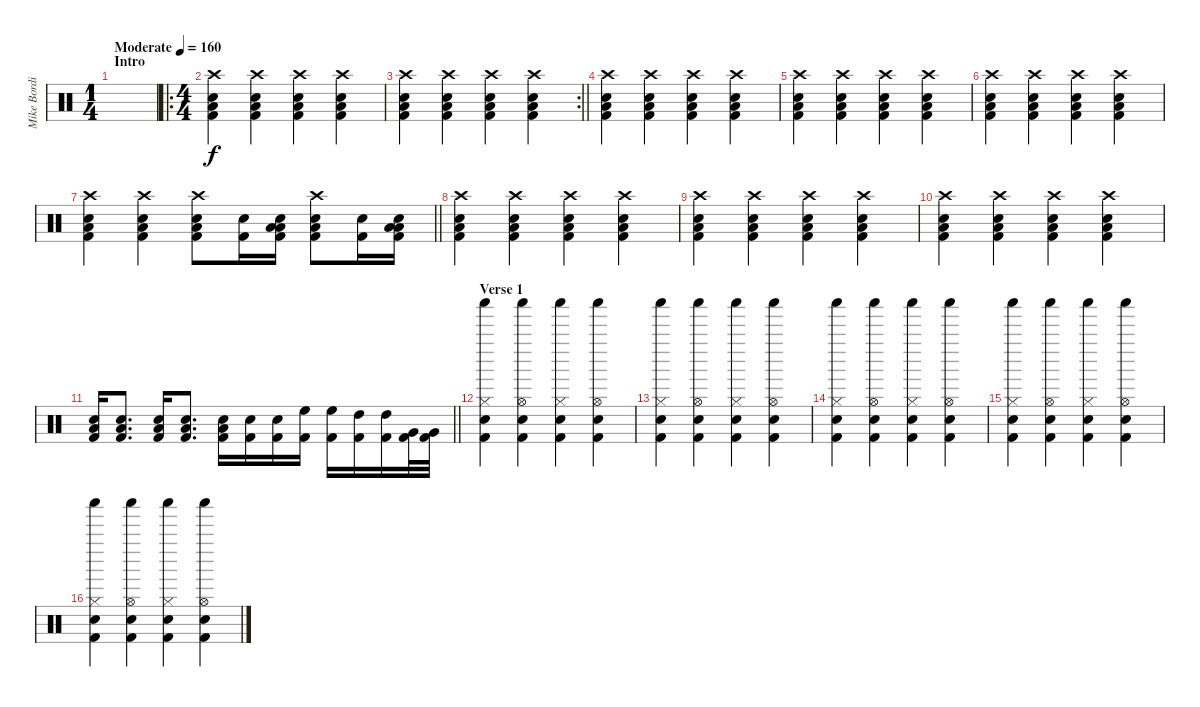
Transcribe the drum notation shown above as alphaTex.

\track ("Mike Bordin - Percussion" "Mike Bordi") {instrument percussion}
\staff {score}
\articulation defaults
\ts (1 4)
\section ("" "Intro")
\tempo (160 "Moderate")
\clef neutral
\ks c
|
\ro
\ts (4 4)
("Crash high (hit)" "Snare (hit) 2" "Low Floor Tom (hit)" "Kick (hit) 2").4 ("Crash high (hit)" "Snare (hit) 2" "Low Floor Tom (hit)" "Kick (hit) 2").4 ("Crash high (hit)" "Snare (hit) 2" "Low Floor Tom (hit)" "Kick (hit) 2").4 ("Crash high (hit)" "Snare (hit) 2" "Low Floor Tom (hit)" "Kick (hit) 2").4 |
\rc 2
\barLineRight lightlight
("Crash high (hit)" "Snare (hit) 2" "Low Floor Tom (hit)" "Kick (hit) 2").4 ("Crash high (hit)" "Snare (hit) 2" "Low Floor Tom (hit)" "Kick (hit) 2").4 ("Crash high (hit)" "Snare (hit) 2" "Low Floor Tom (hit)" "Kick (hit) 2").4 ("Crash high (hit)" "Snare (hit) 2" "Low Floor Tom (hit)" "Kick (hit) 2").4 |
\section ("" "")
("Crash high (hit)" "Snare (hit) 2" "Low Floor Tom (hit)" "Kick (hit) 2").4 ("Crash high (hit)" "Snare (hit) 2" "Low Floor Tom (hit)" "Kick (hit) 2").4 ("Crash high (hit)" "Snare (hit) 2" "Low Floor Tom (hit)" "Kick (hit) 2").4 ("Crash high (hit)" "Snare (hit) 2" "Low Floor Tom (hit)" "Kick (hit) 2").4 |
("Crash high (hit)" "Snare (hit) 2" "Low Floor Tom (hit)" "Kick (hit) 2").4 ("Crash high (hit)" "Snare (hit) 2" "Low Floor Tom (hit)" "Kick (hit) 2").4 ("Crash high (hit)" "Snare (hit) 2" "Low Floor Tom (hit)" "Kick (hit) 2").4 ("Crash high (hit)" "Snare (hit) 2" "Low Floor Tom (hit)" "Kick (hit) 2").4 |
("Crash high (hit)" "Snare (hit) 2" "Low Floor Tom (hit)" "Kick (hit) 2").4 ("Crash high (hit)" "Snare (hit) 2" "Low Floor Tom (hit)" "Kick (hit) 2").4 ("Crash high (hit)" "Snare (hit) 2" "Low Floor Tom (hit)" "Kick (hit) 2").4 ("Crash high (hit)" "Snare (hit) 2" "Low Floor Tom (hit)" "Kick (hit) 2").4 |
\barLineRight lightlight
("Crash high (hit)" "Snare (hit) 2" "Low Floor Tom (hit)" "Kick (hit) 2").4 ("Crash high (hit)" "Snare (hit) 2" "Low Floor Tom (hit)" "Kick (hit) 2").4 ("Crash high (hit)" "Snare (hit) 2" "Low Floor Tom (hit)" "Kick (hit) 2").8 ("Snare (hit) 2" "Kick (hit) 2").16 ("Low Tom (hit)" "Snare (hit) 2" "Low Floor Tom (hit)" "Kick (hit) 2").16 ("Crash high (hit)" "Snare (hit) 2" "Low Floor Tom (hit)" "Kick (hit) 2").8 ("Snare (hit) 2" "Kick (hit) 2").16 ("Low Tom (hit)" "Snare (hit) 2" "Low Floor Tom (hit)" "Kick (hit) 2").16 |
\section ("" "")
("Crash high (hit)" "Snare (hit) 2" "Low Floor Tom (hit)" "Kick (hit) 2").4 ("Crash high (hit)" "Snare (hit) 2" "Low Floor Tom (hit)" "Kick (hit) 2").4 ("Crash high (hit)" "Snare (hit) 2" "Low Floor Tom (hit)" "Kick (hit) 2").4 ("Crash high (hit)" "Snare (hit) 2" "Low Floor Tom (hit)" "Kick (hit) 2").4 |
("Crash high (hit)" "Snare (hit) 2" "Low Floor Tom (hit)" "Kick (hit) 2").4 ("Crash high (hit)" "Snare (hit) 2" "Low Floor Tom (hit)" "Kick (hit) 2").4 ("Crash high (hit)" "Snare (hit) 2" "Low Floor Tom (hit)" "Kick (hit) 2").4 ("Crash high (hit)" "Snare (hit) 2" "Low Floor Tom (hit)" "Kick (hit) 2").4 |
("Crash high (hit)" "Snare (hit) 2" "Low Floor Tom (hit)" "Kick (hit) 2").4 ("Crash high (hit)" "Snare (hit) 2" "Low Floor Tom (hit)" "Kick (hit) 2").4 ("Crash high (hit)" "Snare (hit) 2" "Low Floor Tom (hit)" "Kick (hit) 2").4 ("Crash high (hit)" "Snare (hit) 2" "Low Floor Tom (hit)" "Kick (hit) 2").4 |
\barLineRight lightlight
("Snare (hit) 2" "Low Floor Tom (hit)" "Kick (hit) 2").16 ("Snare (hit) 2" "Low Floor Tom (hit)" "Kick (hit) 2").8{d} ("Snare (hit) 2" "Low Floor Tom (hit)" "Kick (hit) 2").16 ("Snare (hit) 2" "Low Floor Tom (hit)" "Kick (hit) 2").8{d} ("Snare (hit) 2" "Low Floor Tom (hit)" "Kick (hit) 2").16 ("Snare (hit) 2" "Kick (hit) 2").16 ("Snare (hit) 2" "Kick (hit) 2").16 ("High Floor Tom (hit)" "Kick (hit) 2").16 ("High Floor Tom (hit)" "Kick (hit) 2").16 ("High Tom (hit)" "Kick (hit) 2").16 ("High Tom (hit)" "Kick (hit) 2").16 ("Very Low Tom (hit)" "Kick (hit) 2").32 ("Very Low Tom (hit)" "Kick (hit) 2").32 |
\section ("" "Verse 1")
("Shaker (hit)" "Snare (hit) 2" "Hi-Hat (closed)" "Kick (hit) 2").4 ("Shaker (hit)" "Snare (hit) 2" "Hi-Hat (open)" "Kick (hit) 2").4 ("Shaker (hit)" "Snare (hit) 2" "Hi-Hat (closed)" "Kick (hit) 2").4 ("Shaker (hit)" "Snare (hit) 2" "Hi-Hat (open)" "Kick (hit) 2").4 |
("Shaker (hit)" "Snare (hit) 2" "Hi-Hat (closed)" "Kick (hit) 2").4 ("Shaker (hit)" "Snare (hit) 2" "Hi-Hat (open)" "Kick (hit) 2").4 ("Shaker (hit)" "Snare (hit) 2" "Hi-Hat (closed)" "Kick (hit) 2").4 ("Shaker (hit)" "Snare (hit) 2" "Hi-Hat (open)" "Kick (hit) 2").4 |
("Shaker (hit)" "Snare (hit) 2" "Hi-Hat (closed)" "Kick (hit) 2").4 ("Shaker (hit)" "Snare (hit) 2" "Hi-Hat (open)" "Kick (hit) 2").4 ("Shaker (hit)" "Snare (hit) 2" "Hi-Hat (closed)" "Kick (hit) 2").4 ("Shaker (hit)" "Snare (hit) 2" "Hi-Hat (open)" "Kick (hit) 2").4 |
("Shaker (hit)" "Snare (hit) 2" "Hi-Hat (closed)" "Kick (hit) 2").4 ("Shaker (hit)" "Snare (hit) 2" "Hi-Hat (open)" "Kick (hit) 2").4 ("Shaker (hit)" "Snare (hit) 2" "Hi-Hat (closed)" "Kick (hit) 2").4 ("Shaker (hit)" "Snare (hit) 2" "Hi-Hat (open)" "Kick (hit) 2").4 |
("Shaker (hit)" "Snare (hit) 2" "Hi-Hat (closed)" "Kick (hit) 2").4 ("Shaker (hit)" "Snare (hit) 2" "Hi-Hat (open)" "Kick (hit) 2").4 ("Shaker (hit)" "Snare (hit) 2" "Hi-Hat (closed)" "Kick (hit) 2").4 ("Shaker (hit)" "Snare (hit) 2" "Hi-Hat (open)" "Kick (hit) 2").4
